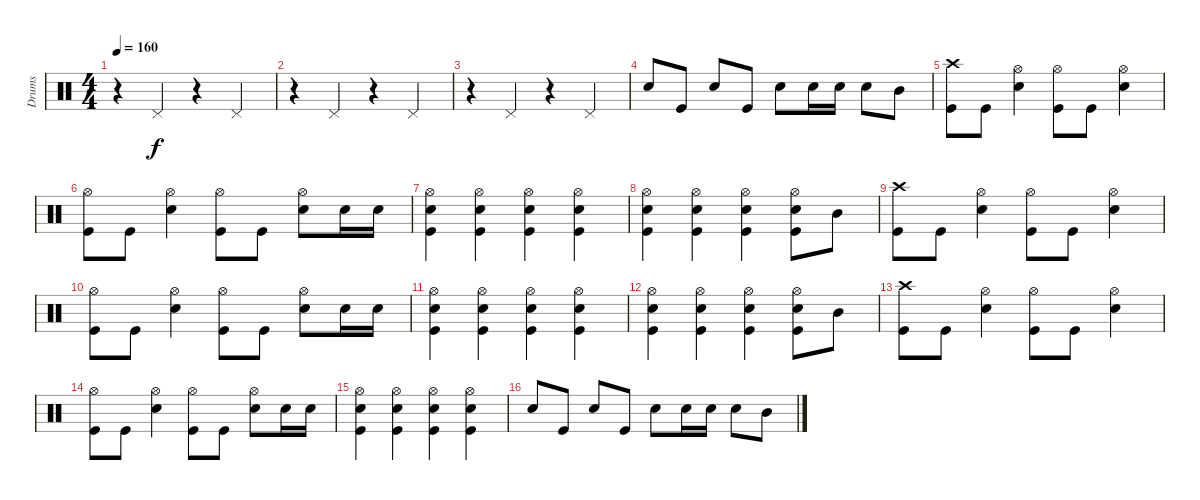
\track ("Drums" "Drums") {instrument percussion}
\staff {score}
\articulation defaults
\ts (4 4)
\tempo 160
\clef neutral
\ks c
r.4{dy f} "Pedal Hi-Hat (hit)".4 r.4 "Pedal Hi-Hat (hit)".4 |
r.4 "Pedal Hi-Hat (hit)".4 r.4 "Pedal Hi-Hat (hit)".4 |
r.4 "Pedal Hi-Hat (hit)".4 r.4 "Pedal Hi-Hat (hit)".4 |
"Snare (hit) 2".8 "Kick (hit)".8 "Snare (hit) 2".8 "Kick (hit)".8 "Snare (hit) 2".8 "Snare (hit) 2".16 "Snare (hit) 2".16 "Snare (hit) 2".8 "Mid Tom (hit)".8 |
("Crash high (hit)" "Kick (hit)").8 "Kick (hit)".8 ("Hi-Hat (open)" "Snare (hit) 2").4 ("Hi-Hat (open)" "Kick (hit)").8 "Kick (hit)".8 ("Hi-Hat (open)" "Snare (hit) 2").4 |
("Hi-Hat (open)" "Kick (hit)").8 "Kick (hit)".8 ("Hi-Hat (open)" "Snare (hit) 2").4 ("Hi-Hat (open)" "Kick (hit)").8 "Kick (hit)".8 ("Hi-Hat (open)" "Snare (hit) 2").8 "Snare (hit) 2".16 "Snare (hit) 2".16 |
("Hi-Hat (open)" "Snare (hit) 2" "Kick (hit)").4 ("Hi-Hat (open)" "Snare (hit) 2" "Kick (hit)").4 ("Hi-Hat (open)" "Snare (hit) 2" "Kick (hit)").4 ("Hi-Hat (open)" "Snare (hit) 2" "Kick (hit)").4 |
("Hi-Hat (open)" "Snare (hit) 2" "Kick (hit)").4 ("Hi-Hat (open)" "Snare (hit) 2" "Kick (hit)").4 ("Hi-Hat (open)" "Snare (hit) 2" "Kick (hit)").4 ("Hi-Hat (open)" "Snare (hit) 2" "Kick (hit)").8 "Mid Tom (hit)".8 |
("Crash high (hit)" "Kick (hit)").8 "Kick (hit)".8 ("Hi-Hat (open)" "Snare (hit) 2").4 ("Hi-Hat (open)" "Kick (hit)").8 "Kick (hit)".8 ("Hi-Hat (open)" "Snare (hit) 2").4 |
("Hi-Hat (open)" "Kick (hit)").8 "Kick (hit)".8 ("Hi-Hat (open)" "Snare (hit) 2").4 ("Hi-Hat (open)" "Kick (hit)").8 "Kick (hit)".8 ("Hi-Hat (open)" "Snare (hit) 2").8 "Snare (hit) 2".16 "Snare (hit) 2".16 |
("Hi-Hat (open)" "Snare (hit) 2" "Kick (hit)").4 ("Hi-Hat (open)" "Snare (hit) 2" "Kick (hit)").4 ("Hi-Hat (open)" "Snare (hit) 2" "Kick (hit)").4 ("Hi-Hat (open)" "Snare (hit) 2" "Kick (hit)").4 |
("Hi-Hat (open)" "Snare (hit) 2" "Kick (hit)").4 ("Hi-Hat (open)" "Snare (hit) 2" "Kick (hit)").4 ("Hi-Hat (open)" "Snare (hit) 2" "Kick (hit)").4 ("Hi-Hat (open)" "Snare (hit) 2" "Kick (hit)").8 "Mid Tom (hit)".8 |
("Crash high (hit)" "Kick (hit)").8 "Kick (hit)".8 ("Hi-Hat (open)" "Snare (hit) 2").4 ("Hi-Hat (open)" "Kick (hit)").8 "Kick (hit)".8 ("Hi-Hat (open)" "Snare (hit) 2").4 |
("Hi-Hat (open)" "Kick (hit)").8 "Kick (hit)".8 ("Hi-Hat (open)" "Snare (hit) 2").4 ("Hi-Hat (open)" "Kick (hit)").8 "Kick (hit)".8 ("Hi-Hat (open)" "Snare (hit) 2").8 "Snare (hit) 2".16 "Snare (hit) 2".16 |
("Hi-Hat (open)" "Snare (hit) 2" "Kick (hit)").4 ("Hi-Hat (open)" "Snare (hit) 2" "Kick (hit)").4 ("Hi-Hat (open)" "Snare (hit) 2" "Kick (hit)").4 ("Hi-Hat (open)" "Snare (hit) 2" "Kick (hit)").4 |
"Snare (hit) 2".8 "Kick (hit)".8 "Snare (hit) 2".8 "Kick (hit)".8 "Snare (hit) 2".8 "Snare (hit) 2".16 "Snare (hit) 2".16 "Snare (hit) 2".8 "Mid Tom (hit)".8
